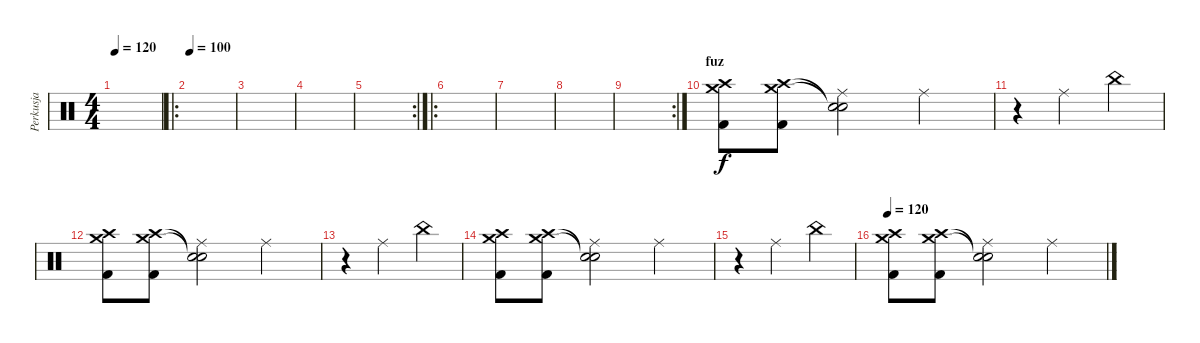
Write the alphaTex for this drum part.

\track ("Perkusja" "Perkusja") {instrument percussion}
\staff {score}
\articulation defaults
\ts (4 4)
\tempo 120
\clef neutral
\ks c
|
\ro
\tempo 100
|
|
|
\rc 2
|
\ro
|
|
|
\rc 2
|
\section ("" "fuz")
("Crash high (hit)" "Crash medium (hit)" "Kick (hit) 2").8 ("Crash high (hit)" "Crash medium (hit)" "Kick (hit) 2").8 ("Snare (hit)"{t} "Snare (hit)"{t} "Ride (middle)").2 "Ride (middle)".4 |
r.4 "Ride (middle)".2 "China (hit)".4 |
("Crash high (hit)" "Crash medium (hit)" "Kick (hit) 2").8 ("Crash high (hit)" "Crash medium (hit)" "Kick (hit) 2").8 ("Snare (hit)"{t} "Snare (hit)"{t} "Ride (middle)").2 "Ride (middle)".4 |
r.4 "Ride (middle)".2 "China (hit)".4 |
("Crash high (hit)" "Crash medium (hit)" "Kick (hit) 2").8 ("Crash high (hit)" "Crash medium (hit)" "Kick (hit) 2").8 ("Snare (hit)"{t} "Snare (hit)"{t} "Ride (middle)").2 "Ride (middle)".4 |
r.4 "Ride (middle)".2 "China (hit)".4 |
\tempo 120
("Crash high (hit)" "Crash medium (hit)" "Kick (hit) 2").8 ("Crash high (hit)" "Crash medium (hit)" "Kick (hit) 2").8 ("Snare (hit)"{t} "Snare (hit)"{t} "Ride (middle)").2 "Ride (middle)".4
